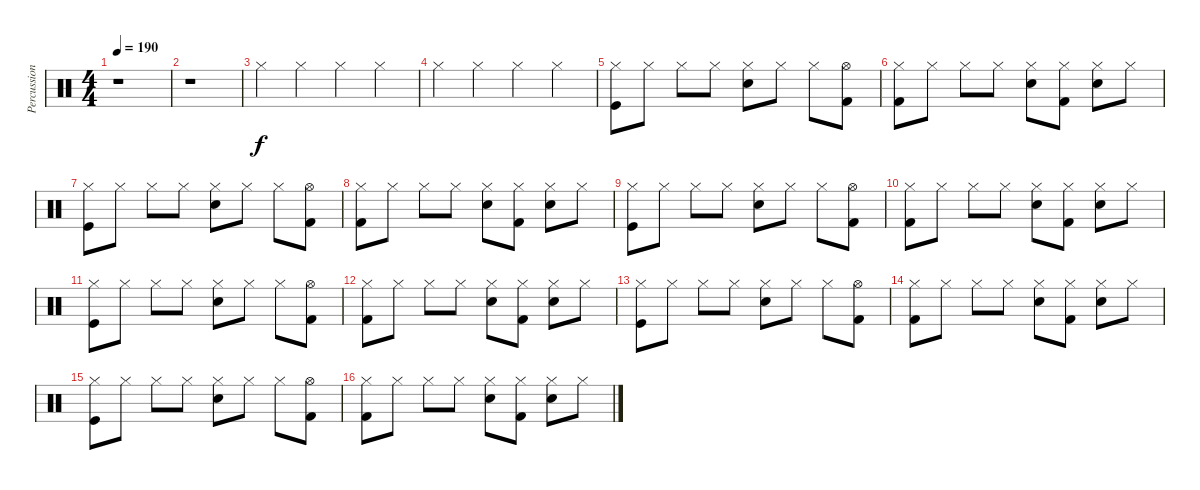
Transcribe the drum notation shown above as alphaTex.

\track ("Percussion" "Percussion") {instrument percussion}
\staff {score}
\articulation defaults
\ts (4 4)
\tempo 190
\clef neutral
\ks c
r.1{dy f} |
r.1 |
"Hi-Hat (closed)".4 "Hi-Hat (closed)".4 "Hi-Hat (closed)".4 "Hi-Hat (closed)".4 |
"Hi-Hat (closed)".4 "Hi-Hat (closed)".4 "Hi-Hat (closed)".4 "Hi-Hat (closed)".4 |
("Kick (hit)" "Hi-Hat (closed)").8 "Hi-Hat (closed)".8 "Hi-Hat (closed)".8 "Hi-Hat (closed)".8 ("Snare (hit) 2" "Hi-Hat (closed)").8 "Hi-Hat (closed)".8 "Hi-Hat (closed)".8 ("Kick (hit) 2" "Hi-Hat (open)").8 |
("Kick (hit) 2" "Hi-Hat (closed)").8 "Hi-Hat (closed)".8 "Hi-Hat (closed)".8 "Hi-Hat (closed)".8 ("Snare (hit) 2" "Hi-Hat (closed)").8 ("Kick (hit) 2" "Hi-Hat (closed)").8 ("Snare (hit) 2" "Hi-Hat (closed)").8 "Hi-Hat (closed)".8 |
("Kick (hit)" "Hi-Hat (closed)").8 "Hi-Hat (closed)".8 "Hi-Hat (closed)".8 "Hi-Hat (closed)".8 ("Snare (hit) 2" "Hi-Hat (closed)").8 "Hi-Hat (closed)".8 "Hi-Hat (closed)".8 ("Kick (hit) 2" "Hi-Hat (open)").8 |
("Kick (hit) 2" "Hi-Hat (closed)").8 "Hi-Hat (closed)".8 "Hi-Hat (closed)".8 "Hi-Hat (closed)".8 ("Snare (hit) 2" "Hi-Hat (closed)").8 ("Kick (hit) 2" "Hi-Hat (closed)").8 ("Snare (hit) 2" "Hi-Hat (closed)").8 "Hi-Hat (closed)".8 |
("Kick (hit)" "Hi-Hat (closed)").8 "Hi-Hat (closed)".8 "Hi-Hat (closed)".8 "Hi-Hat (closed)".8 ("Snare (hit) 2" "Hi-Hat (closed)").8 "Hi-Hat (closed)".8 "Hi-Hat (closed)".8 ("Kick (hit) 2" "Hi-Hat (open)").8 |
("Kick (hit) 2" "Hi-Hat (closed)").8 "Hi-Hat (closed)".8 "Hi-Hat (closed)".8 "Hi-Hat (closed)".8 ("Snare (hit) 2" "Hi-Hat (closed)").8 ("Kick (hit) 2" "Hi-Hat (closed)").8 ("Snare (hit) 2" "Hi-Hat (closed)").8 "Hi-Hat (closed)".8 |
("Kick (hit)" "Hi-Hat (closed)").8 "Hi-Hat (closed)".8 "Hi-Hat (closed)".8 "Hi-Hat (closed)".8 ("Snare (hit) 2" "Hi-Hat (closed)").8 "Hi-Hat (closed)".8 "Hi-Hat (closed)".8 ("Kick (hit) 2" "Hi-Hat (open)").8 |
("Kick (hit) 2" "Hi-Hat (closed)").8 "Hi-Hat (closed)".8 "Hi-Hat (closed)".8 "Hi-Hat (closed)".8 ("Snare (hit) 2" "Hi-Hat (closed)").8 ("Kick (hit) 2" "Hi-Hat (closed)").8 ("Snare (hit) 2" "Hi-Hat (closed)").8 "Hi-Hat (closed)".8 |
("Kick (hit)" "Hi-Hat (closed)").8 "Hi-Hat (closed)".8 "Hi-Hat (closed)".8 "Hi-Hat (closed)".8 ("Snare (hit) 2" "Hi-Hat (closed)").8 "Hi-Hat (closed)".8 "Hi-Hat (closed)".8 ("Kick (hit) 2" "Hi-Hat (open)").8 |
("Kick (hit) 2" "Hi-Hat (closed)").8 "Hi-Hat (closed)".8 "Hi-Hat (closed)".8 "Hi-Hat (closed)".8 ("Snare (hit) 2" "Hi-Hat (closed)").8 ("Kick (hit) 2" "Hi-Hat (closed)").8 ("Snare (hit) 2" "Hi-Hat (closed)").8 "Hi-Hat (closed)".8 |
("Kick (hit)" "Hi-Hat (closed)").8 "Hi-Hat (closed)".8 "Hi-Hat (closed)".8 "Hi-Hat (closed)".8 ("Snare (hit) 2" "Hi-Hat (closed)").8 "Hi-Hat (closed)".8 "Hi-Hat (closed)".8 ("Kick (hit) 2" "Hi-Hat (open)").8 |
("Kick (hit) 2" "Hi-Hat (closed)").8 "Hi-Hat (closed)".8 "Hi-Hat (closed)".8 "Hi-Hat (closed)".8 ("Snare (hit) 2" "Hi-Hat (closed)").8 ("Kick (hit) 2" "Hi-Hat (closed)").8 ("Snare (hit) 2" "Hi-Hat (closed)").8 "Hi-Hat (closed)".8
